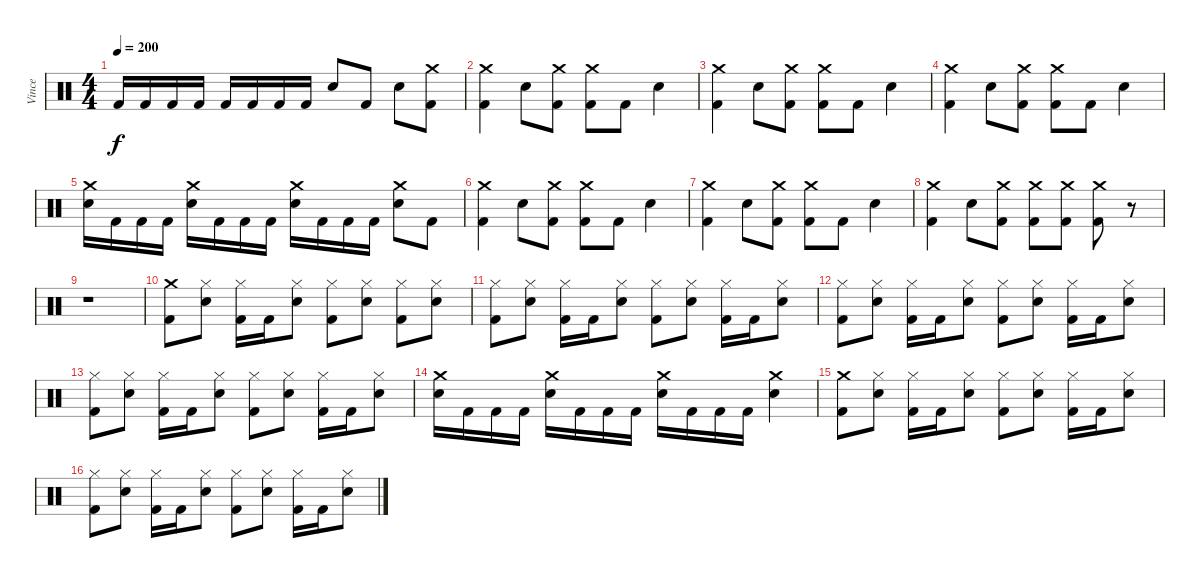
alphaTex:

\track ("Vince" "Vince") {instrument percussion}
\staff {score}
\articulation defaults
\ts (4 4)
\tempo 200
\clef neutral
\ks c "Kick (hit) 2".16{dy f} "Kick (hit) 2".16 "Kick (hit) 2".16 "Kick (hit) 2".16 "Kick (hit) 2".16 "Kick (hit) 2".16 "Kick (hit) 2".16 "Kick (hit) 2".16 "Snare (hit) 2".8 "Kick (hit) 2".8 "Snare (hit) 2".8
("Crash medium (hit)" "Kick (hit) 2").8 |
("Crash medium (hit)" "Kick (hit) 2").4 "Snare (hit) 2".8 ("Crash medium (hit)" "Kick (hit) 2").8 ("Crash medium (hit)" "Kick (hit) 2").8 "Kick (hit) 2".8 "Snare (hit) 2".4 |
("Crash medium (hit)" "Kick (hit) 2").4 "Snare (hit) 2".8 ("Crash medium (hit)" "Kick (hit) 2").8 ("Crash medium (hit)" "Kick (hit) 2").8 "Kick (hit) 2".8 "Snare (hit) 2".4 |
("Crash medium (hit)" "Kick (hit) 2").4 "Snare (hit) 2".8 ("Crash medium (hit)" "Kick (hit) 2").8 ("Crash medium (hit)" "Kick (hit) 2").8 "Kick (hit) 2".8 "Snare (hit) 2".4 |
("Crash medium (hit)" "Snare (hit) 2").16 "Kick (hit) 2".16 "Kick (hit) 2".16 "Kick (hit) 2".16 ("Crash medium (hit)" "Snare (hit) 2").16 "Kick (hit) 2".16 "Kick (hit) 2".16 "Kick (hit) 2".16 ("Crash medium (hit)" "Snare (hit) 2").16 "Kick (hit) 2".16 "Kick (hit) 2".16 "Kick (hit) 2".16 ("Crash medium (hit)" "Snare (hit) 2").8 "Kick (hit) 2".8 |
("Crash medium (hit)" "Kick (hit) 2").4 "Snare (hit) 2".8 ("Crash medium (hit)" "Kick (hit) 2").8 ("Crash medium (hit)" "Kick (hit) 2").8 "Kick (hit) 2".8 "Snare (hit) 2".4 |
("Crash medium (hit)" "Kick (hit) 2").4 "Snare (hit) 2".8 ("Crash medium (hit)" "Kick (hit) 2").8 ("Crash medium (hit)" "Kick (hit) 2").8 "Kick (hit) 2".8 "Snare (hit) 2".4 |
("Crash medium (hit)" "Kick (hit) 2").4 "Snare (hit) 2".8 ("Crash medium (hit)" "Kick (hit) 2").8 ("Crash medium (hit)" "Kick (hit) 2").8 ("Crash medium (hit)" "Kick (hit) 2").8 ("Crash medium (hit)" "Kick (hit) 2").8 r.8 |
r.1 |
("Crash medium (hit)" "Kick (hit) 2").8 ("Hi-Hat (closed)" "Snare (hit) 2").8 ("Hi-Hat (closed)" "Kick (hit) 2").16 "Kick (hit) 2".16 ("Hi-Hat (closed)" "Snare (hit) 2").8 ("Hi-Hat (closed)" "Kick (hit) 2").8 ("Hi-Hat (closed)" "Snare (hit) 2").8 ("Hi-Hat (closed)" "Kick (hit) 2").8 ("Hi-Hat (closed)" "Snare (hit) 2").8 |
("Hi-Hat (closed)" "Kick (hit) 2").8 ("Hi-Hat (closed)" "Snare (hit) 2").8 ("Hi-Hat (closed)" "Kick (hit) 2").16 "Kick (hit) 2".16 ("Hi-Hat (closed)" "Snare (hit) 2").8 ("Hi-Hat (closed)" "Kick (hit) 2").8 ("Hi-Hat (closed)" "Snare (hit) 2").8 ("Hi-Hat (closed)" "Kick (hit) 2").16 "Kick (hit) 2".16 ("Hi-Hat (closed)" "Snare (hit) 2").8 |
("Hi-Hat (closed)" "Kick (hit) 2").8 ("Hi-Hat (closed)" "Snare (hit) 2").8 ("Hi-Hat (closed)" "Kick (hit) 2").16 "Kick (hit) 2".16 ("Hi-Hat (closed)" "Snare (hit) 2").8 ("Hi-Hat (closed)" "Kick (hit) 2").8 ("Hi-Hat (closed)" "Snare (hit) 2").8 ("Hi-Hat (closed)" "Kick (hit) 2").16 "Kick (hit) 2".16 ("Hi-Hat (closed)" "Snare (hit) 2").8 |
("Hi-Hat (closed)" "Kick (hit) 2").8 ("Hi-Hat (closed)" "Snare (hit) 2").8 ("Hi-Hat (closed)" "Kick (hit) 2").16 "Kick (hit) 2".16 ("Hi-Hat (closed)" "Snare (hit) 2").8 ("Hi-Hat (closed)" "Kick (hit) 2").8 ("Hi-Hat (closed)" "Snare (hit) 2").8 ("Hi-Hat (closed)" "Kick (hit) 2").16 "Kick (hit) 2".16 ("Hi-Hat (closed)" "Snare (hit) 2").8 |
("Crash medium (hit)" "Snare (hit) 2").16 "Kick (hit) 2".16 "Kick (hit) 2".16 "Kick (hit) 2".16 ("Crash medium (hit)" "Snare (hit) 2").16 "Kick (hit) 2".16 "Kick (hit) 2".16 "Kick (hit) 2".16 ("Crash medium (hit)" "Snare (hit) 2").16 "Kick (hit) 2".16 "Kick (hit) 2".16 "Kick (hit) 2".16 ("Crash medium (hit)" "Snare (hit) 2").4 |
("Crash medium (hit)" "Kick (hit) 2").8 ("Hi-Hat (closed)" "Snare (hit) 2").8 ("Hi-Hat (closed)" "Kick (hit) 2").16 "Kick (hit) 2".16 ("Hi-Hat (closed)" "Snare (hit) 2").8 ("Hi-Hat (closed)" "Kick (hit) 2").8 ("Hi-Hat (closed)" "Snare (hit) 2").8 ("Hi-Hat (closed)" "Kick (hit) 2").16 "Kick (hit) 2".16 ("Hi-Hat (closed)" "Snare (hit) 2").8 |
("Hi-Hat (closed)" "Kick (hit) 2").8 ("Hi-Hat (closed)" "Snare (hit) 2").8 ("Hi-Hat (closed)" "Kick (hit) 2").16 "Kick (hit) 2".16 ("Hi-Hat (closed)" "Snare (hit) 2").8 ("Hi-Hat (closed)" "Kick (hit) 2").8 ("Hi-Hat (closed)" "Snare (hit) 2").8 ("Hi-Hat (closed)" "Kick (hit) 2").16 "Kick (hit) 2".16 ("Hi-Hat (closed)" "Snare (hit) 2").8
